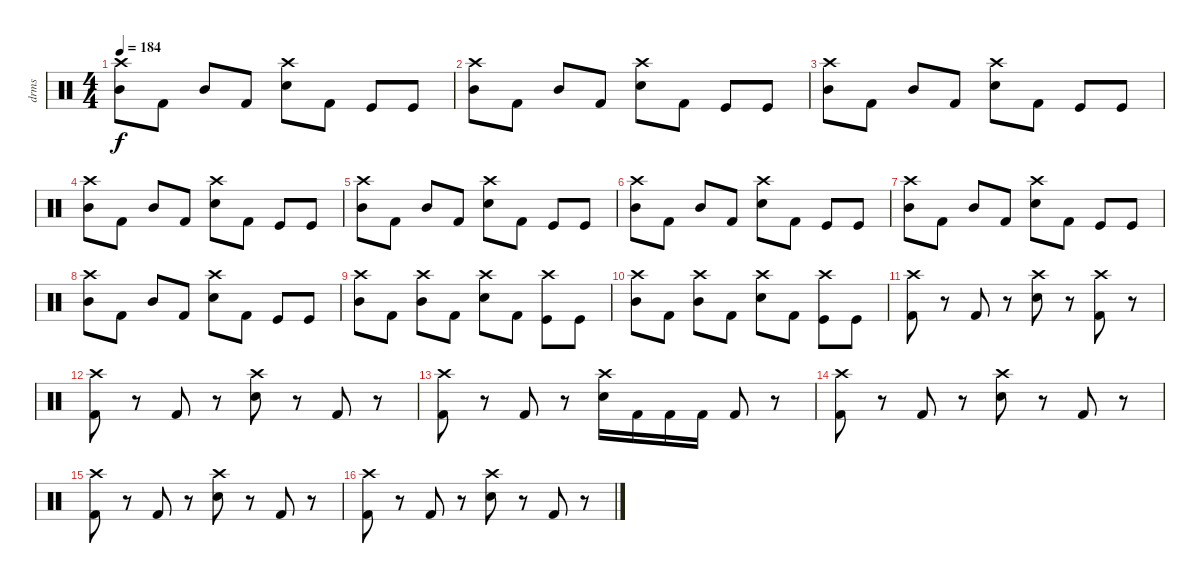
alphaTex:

\track ("drms" "drms") {instrument percussion}
\staff {score}
\articulation defaults
\ts (4 4)
\tempo 184
\clef neutral
\ks c
("Mid Tom (hit)" "Crash high (hit)").8{dy f} "Kick (hit) 2".8 "Mid Tom (hit)".8 "Kick (hit) 2".8 ("Snare (hit) 2" "Crash high (hit)").8 "Kick (hit) 2".8 "Kick (hit)".8 "Kick (hit)".8 |
("Mid Tom (hit)" "Crash high (hit)").8 "Kick (hit) 2".8 "Mid Tom (hit)".8 "Kick (hit) 2".8 ("Snare (hit) 2" "Crash high (hit)").8 "Kick (hit) 2".8 "Kick (hit)".8 "Kick (hit)".8 |
("Mid Tom (hit)" "Crash high (hit)").8 "Kick (hit) 2".8 "Mid Tom (hit)".8 "Kick (hit) 2".8 ("Snare (hit) 2" "Crash high (hit)").8 "Kick (hit) 2".8 "Kick (hit)".8 "Kick (hit)".8 |
("Mid Tom (hit)" "Crash high (hit)").8 "Kick (hit) 2".8 "Mid Tom (hit)".8 "Kick (hit) 2".8 ("Snare (hit) 2" "Crash high (hit)").8 "Kick (hit) 2".8 "Kick (hit)".8 "Kick (hit)".8 |
("Mid Tom (hit)" "Crash high (hit)").8 "Kick (hit) 2".8 "Mid Tom (hit)".8 "Kick (hit) 2".8 ("Snare (hit) 2" "Crash high (hit)").8 "Kick (hit) 2".8 "Kick (hit)".8 "Kick (hit)".8 |
("Mid Tom (hit)" "Crash high (hit)").8 "Kick (hit) 2".8 "Mid Tom (hit)".8 "Kick (hit) 2".8 ("Snare (hit) 2" "Crash high (hit)").8 "Kick (hit) 2".8 "Kick (hit)".8 "Kick (hit)".8 |
("Mid Tom (hit)" "Crash high (hit)").8 "Kick (hit) 2".8 "Mid Tom (hit)".8 "Kick (hit) 2".8 ("Snare (hit) 2" "Crash high (hit)").8 "Kick (hit) 2".8 "Kick (hit)".8 "Kick (hit)".8 |
("Mid Tom (hit)" "Crash high (hit)").8 "Kick (hit) 2".8 "Mid Tom (hit)".8 "Kick (hit) 2".8 ("Snare (hit) 2" "Crash high (hit)").8 "Kick (hit) 2".8 "Kick (hit)".8 "Kick (hit)".8 |
("Mid Tom (hit)" "Crash high (hit)").8 "Kick (hit) 2".8 ("Mid Tom (hit)" "Crash high (hit)").8 "Kick (hit) 2".8 ("Snare (hit) 2" "Crash high (hit)").8 "Kick (hit) 2".8 ("Kick (hit)" "Crash high (hit)").8 "Kick (hit)".8 |
("Mid Tom (hit)" "Crash high (hit)").8 "Kick (hit) 2".8 ("Mid Tom (hit)" "Crash high (hit)").8 "Kick (hit) 2".8 ("Snare (hit) 2" "Crash high (hit)").8 "Kick (hit) 2".8 ("Kick (hit)" "Crash high (hit)").8 "Kick (hit)".8 |
("Crash high (hit)" "Kick (hit) 2").8 r.8 "Kick (hit) 2".8 r.8 ("Crash high (hit)" "Snare (hit) 2").8 r.8 ("Crash high (hit)" "Kick (hit) 2").8 r.8 |
("Crash high (hit)" "Kick (hit) 2").8 r.8 "Kick (hit) 2".8 r.8 ("Crash high (hit)" "Snare (hit) 2").8 r.8 "Kick (hit) 2".8 r.8 |
("Crash high (hit)" "Kick (hit) 2").8 r.8 "Kick (hit) 2".8 r.8 ("Crash high (hit)" "Snare (hit) 2").16 "Kick (hit) 2".16 "Kick (hit) 2".16 "Kick (hit) 2".16 "Kick (hit) 2".8 r.8 |
("Crash high (hit)" "Kick (hit) 2").8 r.8 "Kick (hit) 2".8 r.8 ("Crash high (hit)" "Snare (hit) 2").8 r.8 "Kick (hit) 2".8 r.8 |
("Crash high (hit)" "Kick (hit) 2").8 r.8 "Kick (hit) 2".8 r.8 ("Crash high (hit)" "Snare (hit) 2").8 r.8 "Kick (hit) 2".8 r.8 |
("Crash high (hit)" "Kick (hit) 2").8 r.8 "Kick (hit) 2".8 r.8 ("Crash high (hit)" "Snare (hit) 2").8 r.8 "Kick (hit) 2".8 r.8
